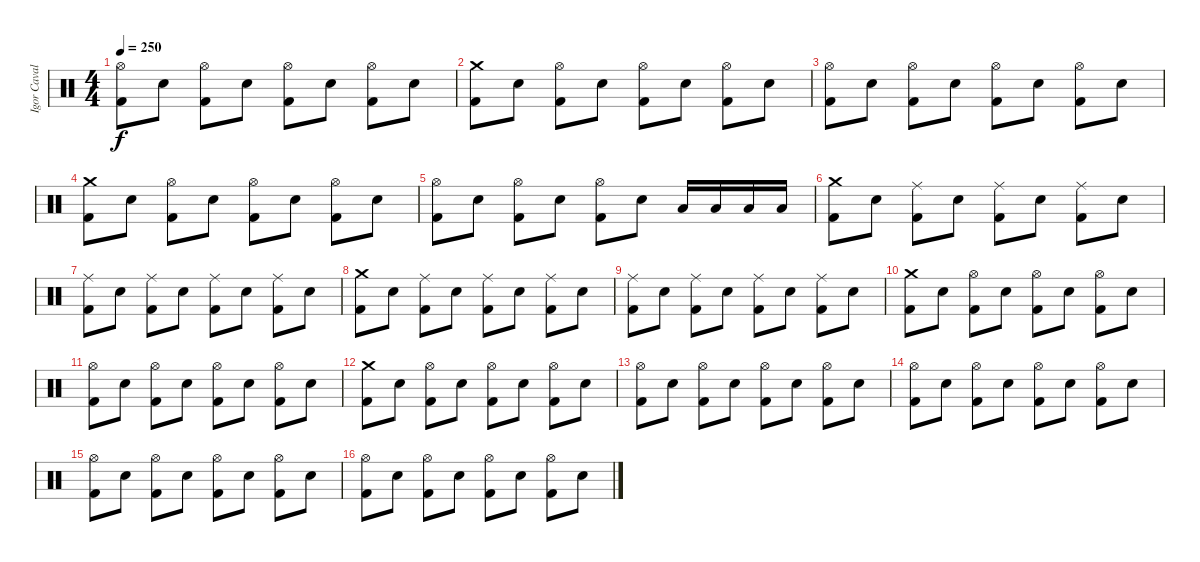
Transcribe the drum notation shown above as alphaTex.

\track ("Igor Cavalera" "Igor Caval") {instrument percussion}
\staff {score}
\articulation defaults
\ts (4 4)
\tempo 250
\clef neutral
\ks c
("Hi-Hat (open)" "Kick (hit) 2").8{dy f} "Electric Snare (hit)".8 ("Hi-Hat (open)" "Kick (hit) 2").8 "Electric Snare (hit)".8 ("Hi-Hat (open)" "Kick (hit) 2").8 "Electric Snare (hit)".8 ("Hi-Hat (open)" "Kick (hit) 2").8 "Electric Snare (hit)".8 |
("Crash medium (hit)" "Kick (hit) 2").8 "Electric Snare (hit)".8 ("Hi-Hat (open)" "Kick (hit) 2").8 "Electric Snare (hit)".8 ("Hi-Hat (open)" "Kick (hit) 2").8 "Electric Snare (hit)".8 ("Hi-Hat (open)" "Kick (hit) 2").8 "Electric Snare (hit)".8 |
("Hi-Hat (open)" "Kick (hit) 2").8 "Electric Snare (hit)".8 ("Hi-Hat (open)" "Kick (hit) 2").8 "Electric Snare (hit)".8 ("Hi-Hat (open)" "Kick (hit) 2").8 "Electric Snare (hit)".8 ("Hi-Hat (open)" "Kick (hit) 2").8 "Electric Snare (hit)".8 |
("Crash medium (hit)" "Kick (hit) 2").8 "Electric Snare (hit)".8 ("Hi-Hat (open)" "Kick (hit) 2").8 "Electric Snare (hit)".8 ("Hi-Hat (open)" "Kick (hit) 2").8 "Electric Snare (hit)".8 ("Hi-Hat (open)" "Kick (hit) 2").8 "Electric Snare (hit)".8 |
("Hi-Hat (open)" "Kick (hit) 2").8 "Electric Snare (hit)".8 ("Hi-Hat (open)" "Kick (hit) 2").8 "Electric Snare (hit)".8 ("Hi-Hat (open)" "Kick (hit) 2").8 "Electric Snare (hit)".8 "Low Tom (hit)".16 "Low Tom (hit)".16 "Low Tom (hit)".16 "Low Tom (hit)".16 |
("Crash medium (hit)" "Kick (hit) 2").8 "Electric Snare (hit)".8 ("Ride (middle)" "Kick (hit) 2").8 "Electric Snare (hit)".8 ("Ride (middle)" "Kick (hit) 2").8 "Electric Snare (hit)".8 ("Ride (middle)" "Kick (hit) 2").8 "Electric Snare (hit)".8 |
("Ride (middle)" "Kick (hit) 2").8 "Electric Snare (hit)".8 ("Ride (middle)" "Kick (hit) 2").8 "Electric Snare (hit)".8 ("Ride (middle)" "Kick (hit) 2").8 "Electric Snare (hit)".8 ("Ride (middle)" "Kick (hit) 2").8 "Electric Snare (hit)".8 |
("Crash medium (hit)" "Kick (hit) 2").8 "Electric Snare (hit)".8 ("Ride (middle)" "Kick (hit) 2").8 "Electric Snare (hit)".8 ("Ride (middle)" "Kick (hit) 2").8 "Electric Snare (hit)".8 ("Ride (middle)" "Kick (hit) 2").8 "Electric Snare (hit)".8 |
("Ride (middle)" "Kick (hit) 2").8 "Electric Snare (hit)".8 ("Ride (middle)" "Kick (hit) 2").8 "Electric Snare (hit)".8 ("Ride (middle)" "Kick (hit) 2").8 "Electric Snare (hit)".8 ("Ride (middle)" "Kick (hit) 2").8 "Electric Snare (hit)".8 |
("Crash medium (hit)" "Kick (hit) 2").8 "Electric Snare (hit)".8 ("Hi-Hat (open)" "Kick (hit) 2").8 "Electric Snare (hit)".8 ("Hi-Hat (open)" "Kick (hit) 2").8 "Electric Snare (hit)".8 ("Hi-Hat (open)" "Kick (hit) 2").8 "Electric Snare (hit)".8 |
("Hi-Hat (open)" "Kick (hit) 2").8 "Electric Snare (hit)".8 ("Hi-Hat (open)" "Kick (hit) 2").8 "Electric Snare (hit)".8 ("Hi-Hat (open)" "Kick (hit) 2").8 "Electric Snare (hit)".8 ("Hi-Hat (open)" "Kick (hit) 2").8 "Electric Snare (hit)".8 |
("Crash medium (hit)" "Kick (hit) 2").8 "Electric Snare (hit)".8 ("Hi-Hat (open)" "Kick (hit) 2").8 "Electric Snare (hit)".8 ("Hi-Hat (open)" "Kick (hit) 2").8 "Electric Snare (hit)".8 ("Hi-Hat (open)" "Kick (hit) 2").8 "Electric Snare (hit)".8 |
("Hi-Hat (open)" "Kick (hit) 2").8 "Electric Snare (hit)".8 ("Hi-Hat (open)" "Kick (hit) 2").8 "Electric Snare (hit)".8 ("Hi-Hat (open)" "Kick (hit) 2").8 "Electric Snare (hit)".8 ("Hi-Hat (open)" "Kick (hit) 2").8 "Electric Snare (hit)".8 |
("Hi-Hat (open)" "Kick (hit) 2").8 "Electric Snare (hit)".8 ("Hi-Hat (open)" "Kick (hit) 2").8 "Electric Snare (hit)".8 ("Hi-Hat (open)" "Kick (hit) 2").8 "Electric Snare (hit)".8 ("Hi-Hat (open)" "Kick (hit) 2").8 "Electric Snare (hit)".8 |
("Hi-Hat (open)" "Kick (hit) 2").8 "Electric Snare (hit)".8 ("Hi-Hat (open)" "Kick (hit) 2").8 "Electric Snare (hit)".8 ("Hi-Hat (open)" "Kick (hit) 2").8 "Electric Snare (hit)".8 ("Hi-Hat (open)" "Kick (hit) 2").8 "Electric Snare (hit)".8 |
("Hi-Hat (open)" "Kick (hit) 2").8 "Electric Snare (hit)".8 ("Hi-Hat (open)" "Kick (hit) 2").8 "Electric Snare (hit)".8 ("Hi-Hat (open)" "Kick (hit) 2").8 "Electric Snare (hit)".8 ("Hi-Hat (open)" "Kick (hit) 2").8 "Electric Snare (hit)".8
